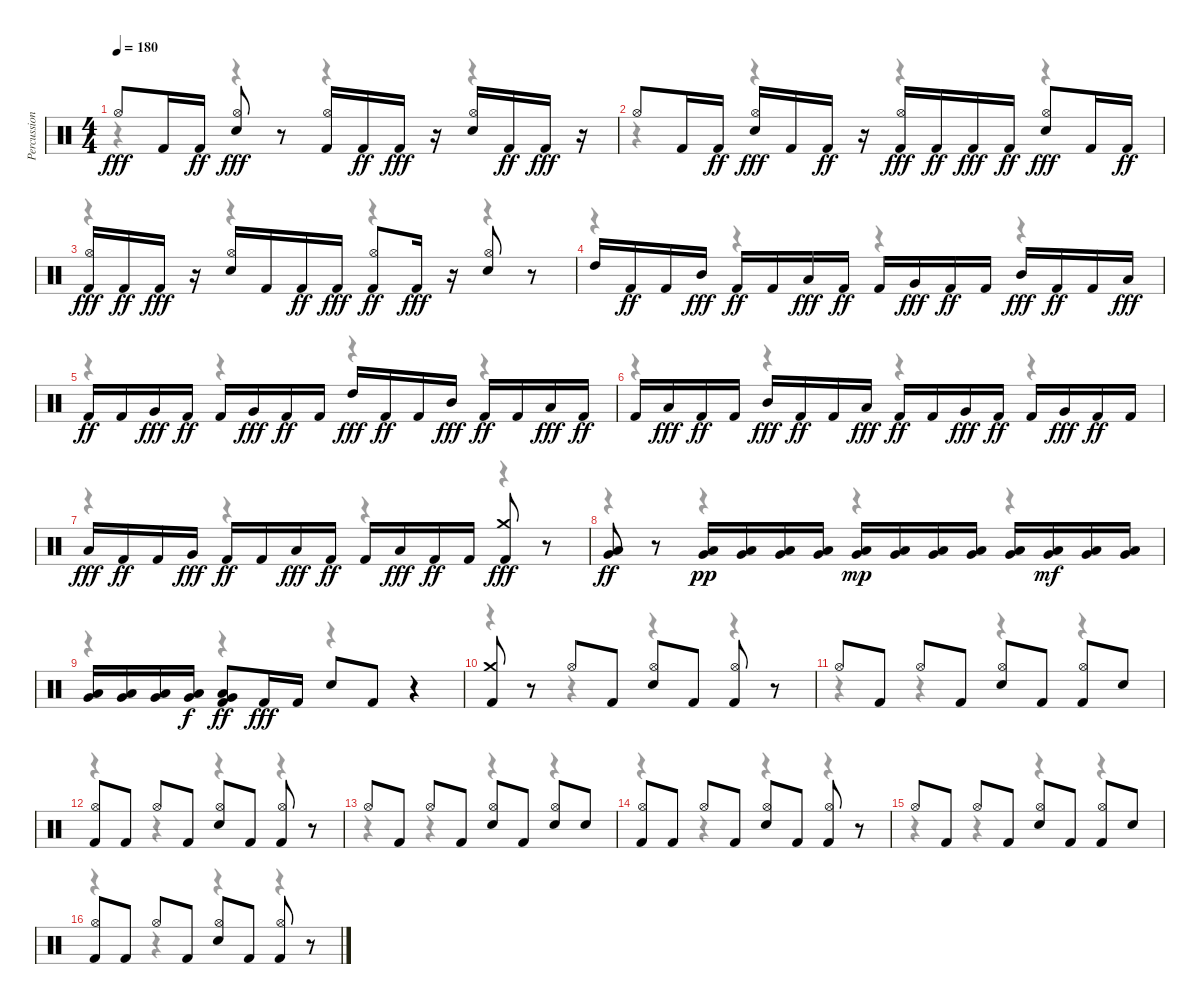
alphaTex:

\track ("Percussion" "Percussion") {instrument percussion}
\staff {score}
\articulation defaults
\voice
\ts (4 4)
\tempo 180
\clef neutral
\ks c "Hi-Hat (open)".8{dy fff} "Kick (hit) 2".16 "Kick (hit) 2".16{dy ff}
("Snare (hit) 2" "Hi-Hat (open)").8{dy fff} r.8 ("Kick (hit) 2" "Hi-Hat (open)").16 "Kick (hit) 2".16{dy ff} "Kick (hit) 2".16{dy fff} r.16 ("Snare (hit) 2" "Hi-Hat (open)").16 "Kick (hit) 2".16{dy ff} "Kick (hit) 2".16{dy fff} r.16 |
"Hi-Hat (open)".8 "Kick (hit) 2".16 "Kick (hit) 2".16{dy ff} ("Snare (hit) 2" "Hi-Hat (open)").16{dy fff} "Kick (hit) 2".16 "Kick (hit) 2".16{dy ff} r.16 ("Kick (hit) 2" "Hi-Hat (open)").16{dy fff} "Kick (hit) 2".16{dy ff} "Kick (hit) 2".16{dy fff} "Kick (hit) 2".16{dy ff} ("Snare (hit) 2" "Hi-Hat (open)").8{dy fff} "Kick (hit) 2".16 "Kick (hit) 2".16{dy ff} |
("Kick (hit) 2" "Hi-Hat (open)").16{dy fff} "Kick (hit) 2".16{dy ff} "Kick (hit) 2".16{dy fff} r.16 ("Snare (hit) 2" "Hi-Hat (open)").16 "Kick (hit) 2".16 "Kick (hit) 2".16{dy ff} "Kick (hit) 2".16{dy fff} ("Kick (hit) 2" "Hi-Hat (open)").8{dy ff} "Kick (hit) 2".16{dy fff} r.16 ("Snare (hit) 2" "Hi-Hat (open)").8 r.8 |
"High Tom (hit)".16 "Kick (hit) 2".16{dy ff} "Kick (hit) 2".16 "Mid Tom (hit)".16{dy fff} "Kick (hit) 2".16{dy ff} "Kick (hit) 2".16 "Low Tom (hit)".16{dy fff} "Kick (hit) 2".16{dy ff} "Kick (hit) 2".16 "Very Low Tom (hit)".16{dy fff} "Kick (hit) 2".16{dy ff} "Kick (hit) 2".16 "Mid Tom (hit)".16{dy fff} "Kick (hit) 2".16{dy ff} "Kick (hit) 2".16 "Low Tom (hit)".16{dy fff} |
"Kick (hit) 2".16{dy ff} "Kick (hit) 2".16 "Very Low Tom (hit)".16{dy fff} "Kick (hit) 2".16{dy ff} "Kick (hit) 2".16 "Very Low Tom (hit)".16{dy fff} "Kick (hit) 2".16{dy ff} "Kick (hit) 2".16 "High Tom (hit)".16{dy fff} "Kick (hit) 2".16{dy ff} "Kick (hit) 2".16 "Mid Tom (hit)".16{dy fff} "Kick (hit) 2".16{dy ff} "Kick (hit) 2".16 "Low Tom (hit)".16{dy fff} "Kick (hit) 2".16{dy ff} |
"Kick (hit) 2".16 "Low Tom (hit)".16{dy fff} "Kick (hit) 2".16{dy ff} "Kick (hit) 2".16 "Mid Tom (hit)".16{dy fff} "Kick (hit) 2".16{dy ff} "Kick (hit) 2".16 "Low Tom (hit)".16{dy fff} "Kick (hit) 2".16{dy ff} "Kick (hit) 2".16 "Very Low Tom (hit)".16{dy fff} "Kick (hit) 2".16{dy ff} "Kick (hit) 2".16 "Very Low Tom (hit)".16{dy fff} "Kick (hit) 2".16{dy ff} "Kick (hit) 2".16 |
"Low Tom (hit)".16{dy fff} "Kick (hit) 2".16{dy ff} "Kick (hit) 2".16 "Very Low Tom (hit)".16{dy fff} "Kick (hit) 2".16{dy ff} "Kick (hit) 2".16 "Low Floor Tom (hit)".16{dy fff} "Kick (hit) 2".16{dy ff} "Kick (hit) 2".16 "Low Floor Tom (hit)".16{dy fff} "Kick (hit) 2".16{dy ff} "Kick (hit) 2".16 ("Kick (hit) 2" "Crash medium (hit)").8{dy fff} r.8 |
("Low Floor Tom (hit)" "Very Low Tom (hit)").8{dy ff} r.8 ("Low Floor Tom (hit)" "Very Low Tom (hit)").16{dy pp} ("Low Floor Tom (hit)" "Very Low Tom (hit)").16 ("Low Floor Tom (hit)" "Very Low Tom (hit)").16 ("Low Floor Tom (hit)" "Very Low Tom (hit)").16 ("Low Floor Tom (hit)" "Very Low Tom (hit)").16{dy mp} ("Low Floor Tom (hit)" "Very Low Tom (hit)").16 ("Low Floor Tom (hit)" "Very Low Tom (hit)").16 ("Low Floor Tom (hit)" "Very Low Tom (hit)").16 ("Low Floor Tom (hit)" "Very Low Tom (hit)").16 ("Low Floor Tom (hit)" "Very Low Tom (hit)").16{dy mf} ("Low Floor Tom (hit)" "Very Low Tom (hit)").16 ("Low Floor Tom (hit)" "Very Low Tom (hit)").16 |
("Low Floor Tom (hit)" "Very Low Tom (hit)").16 ("Low Floor Tom (hit)" "Very Low Tom (hit)").16 ("Low Floor Tom (hit)" "Very Low Tom (hit)").16 ("Low Floor Tom (hit)" "Very Low Tom (hit)").16{dy f} ("Kick (hit) 2" "Low Floor Tom (hit)" "Very Low Tom (hit)").8{dy ff} "Kick (hit) 2".16{dy fff} "Kick (hit) 2".16 "Snare (hit) 2".8 "Kick (hit) 2".8 r.4 |
("Kick (hit) 2" "Crash medium (hit)").8 r.8 "Hi-Hat (open)".8 "Kick (hit) 2".8 ("Hi-Hat (open)" "Snare (hit) 2").8 "Kick (hit) 2".8 ("Hi-Hat (open)" "Kick (hit) 2").8 r.8 |
"Hi-Hat (open)".8 "Kick (hit) 2".8 "Hi-Hat (open)".8 "Kick (hit) 2".8 ("Hi-Hat (open)" "Snare (hit) 2").8 "Kick (hit) 2".8 ("Hi-Hat (open)" "Kick (hit) 2").8 "Snare (hit) 2".8 |
("Hi-Hat (open)" "Kick (hit) 2").8 "Kick (hit) 2".8 "Hi-Hat (open)".8 "Kick (hit) 2".8 ("Hi-Hat (open)" "Snare (hit) 2").8 "Kick (hit) 2".8 ("Hi-Hat (open)" "Kick (hit) 2").8 r.8 |
"Hi-Hat (open)".8 "Kick (hit) 2".8 "Hi-Hat (open)".8 "Kick (hit) 2".8 ("Hi-Hat (open)" "Snare (hit) 2").8 "Kick (hit) 2".8 ("Hi-Hat (open)" "Snare (hit) 2").8 "Snare (hit) 2".8 |
("Hi-Hat (open)" "Kick (hit) 2").8 "Kick (hit) 2".8 "Hi-Hat (open)".8 "Kick (hit) 2".8 ("Hi-Hat (open)" "Snare (hit) 2").8 "Kick (hit) 2".8 ("Hi-Hat (open)" "Kick (hit) 2").8 r.8 |
"Hi-Hat (open)".8 "Kick (hit) 2".8 "Hi-Hat (open)".8 "Kick (hit) 2".8 ("Hi-Hat (open)" "Snare (hit) 2").8 "Kick (hit) 2".8 ("Hi-Hat (open)" "Kick (hit) 2").8 "Snare (hit) 2".8 |
("Hi-Hat (open)" "Kick (hit) 2").8 "Kick (hit) 2".8 "Hi-Hat (open)".8 "Kick (hit) 2".8 ("Hi-Hat (open)" "Snare (hit) 2").8 "Kick (hit) 2".8 ("Hi-Hat (open)" "Kick (hit) 2").8 r.8
\voice
\clef neutral
\ottava regular
\simile none
\ks c
r.4{dy f} r.4 r.4 r.4 |
r.4 r.4 r.4 r.4 |
r.4 r.4 r.4 r.4 |
r.4 r.4 r.4 r.4 |
r.4 r.4 r.4 r.4 |
r.4 r.4 r.4 r.4 |
r.4 r.4 r.4 r.4 |
r.4 r.4 r.4 r.4 |
r.4 r.4 r.4 r.4 |
r.4 r.4 r.4 r.4 |
r.4 r.4 r.4 r.4 |
r.4 r.4 r.4 r.4 |
r.4 r.4 r.4 r.4 |
r.4 r.4 r.4 r.4 |
r.4 r.4 r.4 r.4 |
r.4 r.4 r.4 r.4
